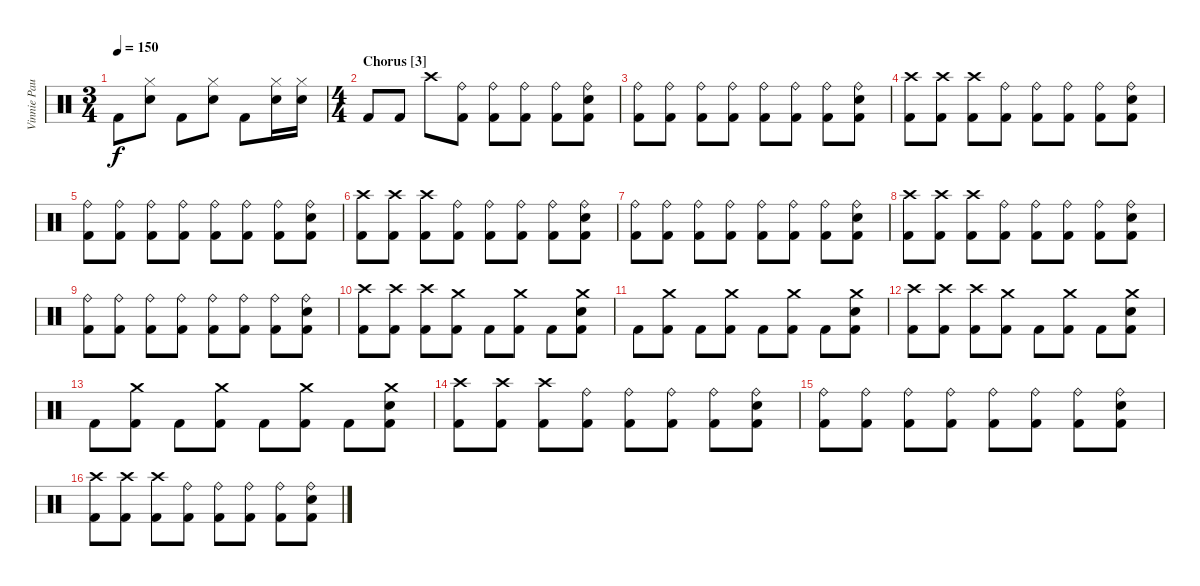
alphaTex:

\track ("Vinnie Paul" "Vinnie Pau") {instrument percussion}
\staff {score}
\articulation defaults
\ts (3 4)
\tempo 150
\clef neutral
\ks c "Kick (hit) 2".8{dy f}
("Hi-Hat (closed)" "Snare (hit) 2").8 "Kick (hit) 2".8 ("Hi-Hat (closed)" "Snare (hit) 2").8 "Kick (hit) 2".8 ("Hi-Hat (closed)" "Snare (hit) 2").16 ("Hi-Hat (closed)" "Snare (hit) 2").16 |
\ts (4 4)
\section ("" "Chorus [3]")
"Kick (hit) 2".8 "Kick (hit) 2".8 "Crash high (hit)".8 ("Ride (bell)" "Kick (hit) 2").8 ("Ride (bell)" "Kick (hit) 2").8 ("Ride (bell)" "Kick (hit) 2").8 ("Ride (bell)" "Kick (hit) 2").8 ("Ride (bell)" "Snare (hit) 2" "Kick (hit) 2").8 |
("Ride (bell)" "Kick (hit) 2").8 ("Ride (bell)" "Kick (hit) 2").8 ("Ride (bell)" "Kick (hit) 2").8 ("Ride (bell)" "Kick (hit) 2").8 ("Ride (bell)" "Kick (hit) 2").8 ("Ride (bell)" "Kick (hit) 2").8 ("Ride (bell)" "Kick (hit) 2").8 ("Ride (bell)" "Snare (hit) 2" "Kick (hit) 2").8 |
("Crash high (hit)" "Kick (hit) 2").8 ("Crash high (hit)" "Kick (hit) 2").8 ("Crash high (hit)" "Kick (hit) 2").8 ("Ride (bell)" "Kick (hit) 2").8 ("Ride (bell)" "Kick (hit) 2").8 ("Ride (bell)" "Kick (hit) 2").8 ("Ride (bell)" "Kick (hit) 2").8 ("Ride (bell)" "Snare (hit) 2" "Kick (hit) 2").8 |
("Ride (bell)" "Kick (hit) 2").8 ("Ride (bell)" "Kick (hit) 2").8 ("Ride (bell)" "Kick (hit) 2").8 ("Ride (bell)" "Kick (hit) 2").8 ("Ride (bell)" "Kick (hit) 2").8 ("Ride (bell)" "Kick (hit) 2").8 ("Ride (bell)" "Kick (hit) 2").8 ("Ride (bell)" "Snare (hit) 2" "Kick (hit) 2").8 |
("Crash high (hit)" "Kick (hit) 2").8 ("Crash high (hit)" "Kick (hit) 2").8 ("Crash high (hit)" "Kick (hit) 2").8 ("Ride (bell)" "Kick (hit) 2").8 ("Ride (bell)" "Kick (hit) 2").8 ("Ride (bell)" "Kick (hit) 2").8 ("Ride (bell)" "Kick (hit) 2").8 ("Ride (bell)" "Snare (hit) 2" "Kick (hit) 2").8 |
("Ride (bell)" "Kick (hit) 2").8 ("Ride (bell)" "Kick (hit) 2").8 ("Ride (bell)" "Kick (hit) 2").8 ("Ride (bell)" "Kick (hit) 2").8 ("Ride (bell)" "Kick (hit) 2").8 ("Ride (bell)" "Kick (hit) 2").8 ("Ride (bell)" "Kick (hit) 2").8 ("Ride (bell)" "Snare (hit) 2" "Kick (hit) 2").8 |
("Crash high (hit)" "Kick (hit) 2").8 ("Crash high (hit)" "Kick (hit) 2").8 ("Crash high (hit)" "Kick (hit) 2").8 ("Ride (bell)" "Kick (hit) 2").8 ("Ride (bell)" "Kick (hit) 2").8 ("Ride (bell)" "Kick (hit) 2").8 ("Ride (bell)" "Kick (hit) 2").8 ("Ride (bell)" "Snare (hit) 2" "Kick (hit) 2").8 |
("Ride (bell)" "Kick (hit) 2").8 ("Ride (bell)" "Kick (hit) 2").8 ("Ride (bell)" "Kick (hit) 2").8 ("Ride (bell)" "Kick (hit) 2").8 ("Ride (bell)" "Kick (hit) 2").8 ("Ride (bell)" "Kick (hit) 2").8 ("Ride (bell)" "Kick (hit) 2").8 ("Ride (bell)" "Snare (hit) 2" "Kick (hit) 2").8 |
("Crash high (hit)" "Kick (hit) 2").8 ("Crash high (hit)" "Kick (hit) 2").8 ("Crash high (hit)" "Kick (hit) 2").8 ("Crash medium (hit)" "Kick (hit) 2").8 "Kick (hit) 2".8 ("Crash medium (hit)" "Kick (hit) 2").8 "Kick (hit) 2".8 ("Crash medium (hit)" "Snare (hit) 2" "Kick (hit) 2").8 |
"Kick (hit) 2".8 ("Crash medium (hit)" "Kick (hit) 2").8 "Kick (hit) 2".8 ("Crash medium (hit)" "Kick (hit) 2").8 "Kick (hit) 2".8 ("Crash medium (hit)" "Kick (hit) 2").8 "Kick (hit) 2".8 ("Crash medium (hit)" "Snare (hit) 2" "Kick (hit) 2").8 |
("Crash high (hit)" "Kick (hit) 2").8 ("Crash high (hit)" "Kick (hit) 2").8 ("Crash high (hit)" "Kick (hit) 2").8 ("Crash medium (hit)" "Kick (hit) 2").8 "Kick (hit) 2".8 ("Crash medium (hit)" "Kick (hit) 2").8 "Kick (hit) 2".8 ("Crash medium (hit)" "Snare (hit) 2" "Kick (hit) 2").8 |
"Kick (hit) 2".8 ("Crash medium (hit)" "Kick (hit) 2").8 "Kick (hit) 2".8 ("Crash medium (hit)" "Kick (hit) 2").8 "Kick (hit) 2".8 ("Crash medium (hit)" "Kick (hit) 2").8 "Kick (hit) 2".8 ("Crash medium (hit)" "Snare (hit) 2" "Kick (hit) 2").8 |
("Crash high (hit)" "Kick (hit) 2").8 ("Crash high (hit)" "Kick (hit) 2").8 ("Crash high (hit)" "Kick (hit) 2").8 ("Ride (bell)" "Kick (hit) 2").8 ("Ride (bell)" "Kick (hit) 2").8 ("Ride (bell)" "Kick (hit) 2").8 ("Ride (bell)" "Kick (hit) 2").8 ("Ride (bell)" "Snare (hit) 2" "Kick (hit) 2").8 |
("Ride (bell)" "Kick (hit) 2").8 ("Ride (bell)" "Kick (hit) 2").8 ("Ride (bell)" "Kick (hit) 2").8 ("Ride (bell)" "Kick (hit) 2").8 ("Ride (bell)" "Kick (hit) 2").8 ("Ride (bell)" "Kick (hit) 2").8 ("Ride (bell)" "Kick (hit) 2").8 ("Ride (bell)" "Snare (hit) 2" "Kick (hit) 2").8 |
("Crash high (hit)" "Kick (hit) 2").8 ("Crash high (hit)" "Kick (hit) 2").8 ("Crash high (hit)" "Kick (hit) 2").8 ("Ride (bell)" "Kick (hit) 2").8 ("Ride (bell)" "Kick (hit) 2").8 ("Ride (bell)" "Kick (hit) 2").8 ("Ride (bell)" "Kick (hit) 2").8 ("Ride (bell)" "Snare (hit) 2" "Kick (hit) 2").8
